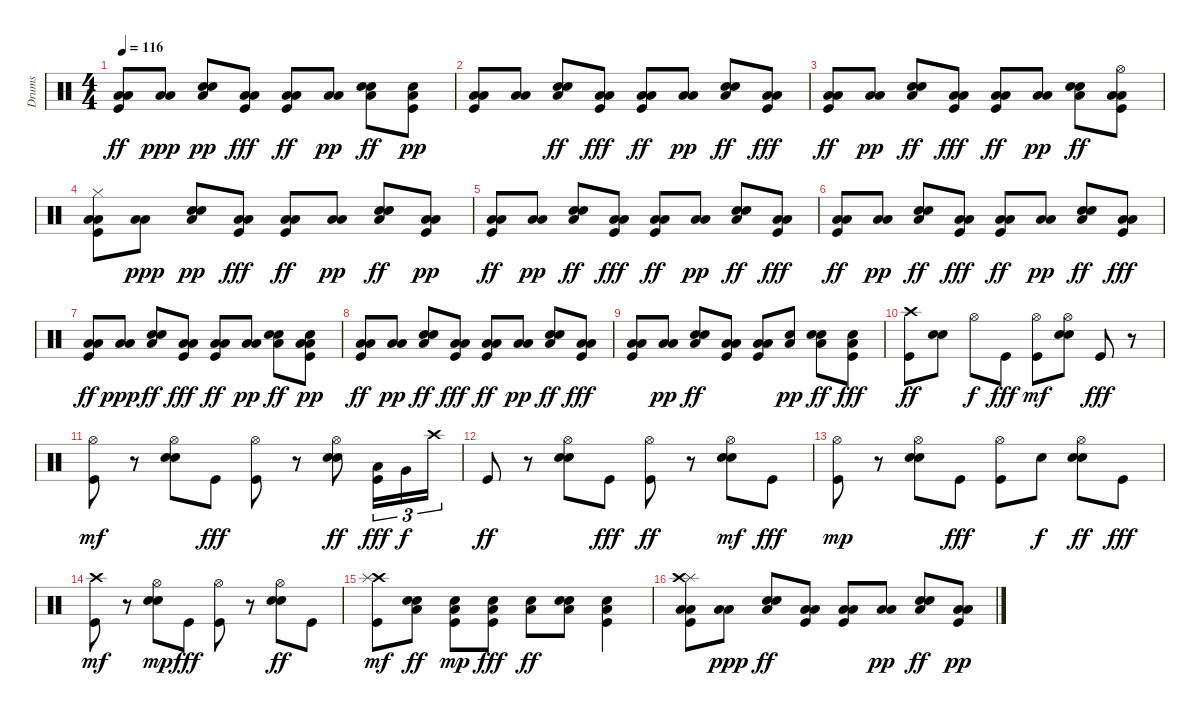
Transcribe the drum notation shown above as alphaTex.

\track ("Drums" "Drums") {instrument percussion}
\staff {score}
\articulation defaults
\ts (4 4)
\tempo 116
\clef neutral
\ks c
("Low Tom (hit)" "Low Floor Tom (hit)" "Kick (hit)").8{dy ff} ("Low Floor Tom (hit)" "Low Tom (hit)").8{dy ppp} ("Hand Clap (hit)" "Snare (hit) 2" "Low Floor Tom (hit)").8{dy pp} ("Low Tom (hit)" "Low Floor Tom (hit)" "Kick (hit)").8{dy fff} ("Low Tom (hit)" "Low Floor Tom (hit)" "Kick (hit)").8{dy ff} ("Low Tom (hit)" "Low Floor Tom (hit)").8{dy pp} ("Low Floor Tom (hit)" "Hand Clap (hit)" "Snare (hit) 2").8{dy ff} ("Snare (hit) 2" "Kick (hit)" "Low Floor Tom (hit)").8{dy pp} |
("Kick (hit)" "Low Tom (hit)" "Low Floor Tom (hit)").8 ("Low Tom (hit)" "Low Floor Tom (hit)").8 ("Snare (hit) 2" "Low Floor Tom (hit)" "Hand Clap (hit)").8{dy ff} ("Low Tom (hit)" "Low Floor Tom (hit)" "Kick (hit)").8{dy fff} ("Low Tom (hit)" "Low Floor Tom (hit)" "Kick (hit)").8{dy ff} ("Low Tom (hit)" "Low Floor Tom (hit)").8{dy pp} ("Low Floor Tom (hit)" "Hand Clap (hit)" "Snare (hit) 2").8{dy ff} ("Low Tom (hit)" "Low Floor Tom (hit)" "Kick (hit)").8{dy fff} |
("Low Tom (hit)" "Low Floor Tom (hit)" "Kick (hit)").8{dy ff} ("Low Tom (hit)" "Low Floor Tom (hit)").8{dy pp} ("Snare (hit) 2" "Low Floor Tom (hit)" "Hand Clap (hit)").8{dy ff} ("Low Tom (hit)" "Low Floor Tom (hit)" "Kick (hit)").8{dy fff} ("Low Tom (hit)" "Low Floor Tom (hit)" "Kick (hit)").8{dy ff} ("Low Floor Tom (hit)" "Low Tom (hit)").8{dy pp} ("Low Floor Tom (hit)" "Hand Clap (hit)" "Snare (hit) 2").8{dy ff} ("Low Tom (hit)" "Low Floor Tom (hit)" "Kick (hit)" "Hi-Hat (open)").8 |
("Hi-Hat (closed)" "Low Tom (hit)" "Low Floor Tom (hit)" "Kick (hit)").8 ("Low Floor Tom (hit)" "Low Tom (hit)").8{dy ppp} ("Hand Clap (hit)" "Snare (hit) 2" "Low Floor Tom (hit)").8{dy pp} ("Low Tom (hit)" "Low Floor Tom (hit)" "Kick (hit)").8{dy fff} ("Low Tom (hit)" "Low Floor Tom (hit)" "Kick (hit)").8{dy ff} ("Low Tom (hit)" "Low Floor Tom (hit)").8{dy pp} ("Low Floor Tom (hit)" "Hand Clap (hit)" "Snare (hit) 2").8{dy ff} ("Kick (hit)" "Low Tom (hit)" "Low Floor Tom (hit)").8{dy pp} |
("Low Tom (hit)" "Low Floor Tom (hit)" "Kick (hit)").8{dy ff} ("Low Tom (hit)" "Low Floor Tom (hit)").8{dy pp} ("Snare (hit) 2" "Low Floor Tom (hit)" "Hand Clap (hit)").8{dy ff} ("Low Tom (hit)" "Low Floor Tom (hit)" "Kick (hit)").8{dy fff} ("Low Tom (hit)" "Low Floor Tom (hit)" "Kick (hit)").8{dy ff} ("Low Tom (hit)" "Low Floor Tom (hit)").8{dy pp} ("Low Floor Tom (hit)" "Hand Clap (hit)" "Snare (hit) 2").8{dy ff} ("Low Tom (hit)" "Low Floor Tom (hit)" "Kick (hit)").8{dy fff} |
("Low Tom (hit)" "Low Floor Tom (hit)" "Kick (hit)").8{dy ff} ("Low Tom (hit)" "Low Floor Tom (hit)").8{dy pp} ("Snare (hit) 2" "Low Floor Tom (hit)" "Hand Clap (hit)").8{dy ff} ("Low Tom (hit)" "Low Floor Tom (hit)" "Kick (hit)").8{dy fff} ("Low Tom (hit)" "Low Floor Tom (hit)" "Kick (hit)").8{dy ff} ("Low Floor Tom (hit)" "Low Tom (hit)").8{dy pp} ("Snare (hit) 2" "Low Floor Tom (hit)" "Hand Clap (hit)").8{dy ff} ("Low Tom (hit)" "Low Floor Tom (hit)" "Kick (hit)").8{dy fff} |
("Low Tom (hit)" "Low Floor Tom (hit)" "Kick (hit)").8{dy ff} ("Low Floor Tom (hit)" "Low Tom (hit)").8{dy ppp} ("Snare (hit) 2" "Low Floor Tom (hit)" "Hand Clap (hit)").8{dy ff} ("Low Tom (hit)" "Low Floor Tom (hit)" "Kick (hit)").8{dy fff} ("Low Tom (hit)" "Low Floor Tom (hit)" "Kick (hit)").8{dy ff} ("Low Tom (hit)" "Low Floor Tom (hit)").8{dy pp} ("Low Floor Tom (hit)" "Hand Clap (hit)" "Snare (hit) 2").8{dy ff} ("Snare (hit) 2" "Kick (hit)" "Low Tom (hit)" "Low Floor Tom (hit)").8{dy pp} |
("Low Tom (hit)" "Low Floor Tom (hit)" "Kick (hit)").8{dy ff} ("Low Tom (hit)" "Low Floor Tom (hit)").8{dy pp} ("Snare (hit) 2" "Low Floor Tom (hit)" "Hand Clap (hit)").8{dy ff} ("Low Tom (hit)" "Low Floor Tom (hit)" "Kick (hit)").8{dy fff} ("Low Tom (hit)" "Low Floor Tom (hit)" "Kick (hit)").8{dy ff} ("Low Tom (hit)" "Low Floor Tom (hit)").8{dy pp} ("Snare (hit) 2" "Low Floor Tom (hit)" "Hand Clap (hit)").8{dy ff} ("Low Tom (hit)" "Low Floor Tom (hit)" "Kick (hit)").8{dy fff} |
("Low Tom (hit)" "Low Floor Tom (hit)" "Kick (hit)").8 ("Low Tom (hit)" "Low Floor Tom (hit)").8{dy pp} ("Snare (hit) 2" "Low Floor Tom (hit)" "Hand Clap (hit)").8{dy ff} ("Low Tom (hit)" "Low Floor Tom (hit)" "Kick (hit)").8 ("Low Tom (hit)" "Low Floor Tom (hit)" "Kick (hit)").8 ("Snare (hit) 2" "Low Floor Tom (hit)").8{dy pp} ("Low Floor Tom (hit)" "Hand Clap (hit)" "Snare (hit) 2").8{dy ff} ("Snare (hit) 2" "Low Floor Tom (hit)" "Kick (hit)").8{dy fff} |
("Crash high (hit)" "Kick (hit)").8{dy ff} ("Snare (hit) 2" "Hand Clap (hit)").8 "Hi-Hat (open)".8{dy f} "Kick (hit)".8{dy fff} ("Kick (hit)" "Hi-Hat (open)").8{dy mf} ("Snare (hit) 2" "Hand Clap (hit)" "Hi-Hat (open)").8 "Kick (hit)".8{dy fff} r.8 |
("Kick (hit)" "Hi-Hat (open)").8{dy mf} r.8 ("Hi-Hat (open)" "Snare (hit) 2" "Hand Clap (hit)").8 "Kick (hit)".8{dy fff} ("Hi-Hat (open)" "Kick (hit)").8 r.8 ("Hi-Hat (open)" "Snare (hit) 2" "Hand Clap (hit)").8{dy ff} ("Low Tom (hit)" "Kick (hit)").16{tu (3 2) dy fff} "Very Low Tom (hit)".16{tu (3 2) dy f} "Crash high (hit)".16{tu (3 2)} |
"Kick (hit)".8{dy ff} r.8 ("Hi-Hat (open)" "Hand Clap (hit)" "Snare (hit) 2").8 "Kick (hit)".8{dy fff} ("Hi-Hat (open)" "Kick (hit)").8{dy ff} r.8 ("Hand Clap (hit)" "Snare (hit) 2" "Hi-Hat (open)").8{dy mf} "Kick (hit)".8{dy fff} |
("Kick (hit)" "Hi-Hat (open)").8{dy mp} r.8 ("Hand Clap (hit)" "Snare (hit) 2" "Hi-Hat (open)").8 "Kick (hit)".8{dy fff} ("Hi-Hat (open)" "Kick (hit)").8 "Snare (hit) 2".8{dy f} ("Hand Clap (hit)" "Snare (hit) 2" "Hi-Hat (open)").8{dy ff} "Kick (hit)".8{dy fff} |
("Kick (hit)" "Crash high (hit)").8{dy mf} r.8 ("Hand Clap (hit)" "Snare (hit) 2" "Hi-Hat (open)").8{dy mp} "Kick (hit)".8{dy fff} ("Hi-Hat (open)" "Kick (hit)").8 r.8 ("Hi-Hat (open)" "Hand Clap (hit)" "Snare (hit) 2").8{dy ff} "Kick (hit)".8 |
("Crash high (hit)" "Kick (hit)" "Splash (hit)").8{dy mf} ("Snare (hit) 2" "Low Floor Tom (hit)" "Hand Clap (hit)").8{dy ff} ("Low Floor Tom (hit)" "Kick (hit)" "Snare (hit) 2").8{dy mp} ("Snare (hit) 2" "Low Floor Tom (hit)" "Kick (hit)").8{dy fff} ("Snare (hit) 2" "Low Floor Tom (hit)").8{dy ff} ("Hand Clap (hit)" "Snare (hit) 2" "Low Floor Tom (hit)").8 ("Snare (hit) 2" "Low Floor Tom (hit)" "Kick (hit)").4 |
("Low Tom (hit)" "Low Floor Tom (hit)" "Kick (hit)" "Splash (hit)" "Crash high (hit)").8 ("Low Floor Tom (hit)" "Low Tom (hit)").8{dy ppp} ("Low Floor Tom (hit)" "Hand Clap (hit)" "Snare (hit) 2").8{dy ff} ("Low Tom (hit)" "Low Floor Tom (hit)" "Kick (hit)").8 ("Low Tom (hit)" "Low Floor Tom (hit)" "Kick (hit)").8 ("Low Tom (hit)" "Low Floor Tom (hit)").8{dy pp} ("Low Floor Tom (hit)" "Hand Clap (hit)" "Snare (hit) 2").8{dy ff} ("Kick (hit)" "Low Tom (hit)" "Low Floor Tom (hit)").8{dy pp}
